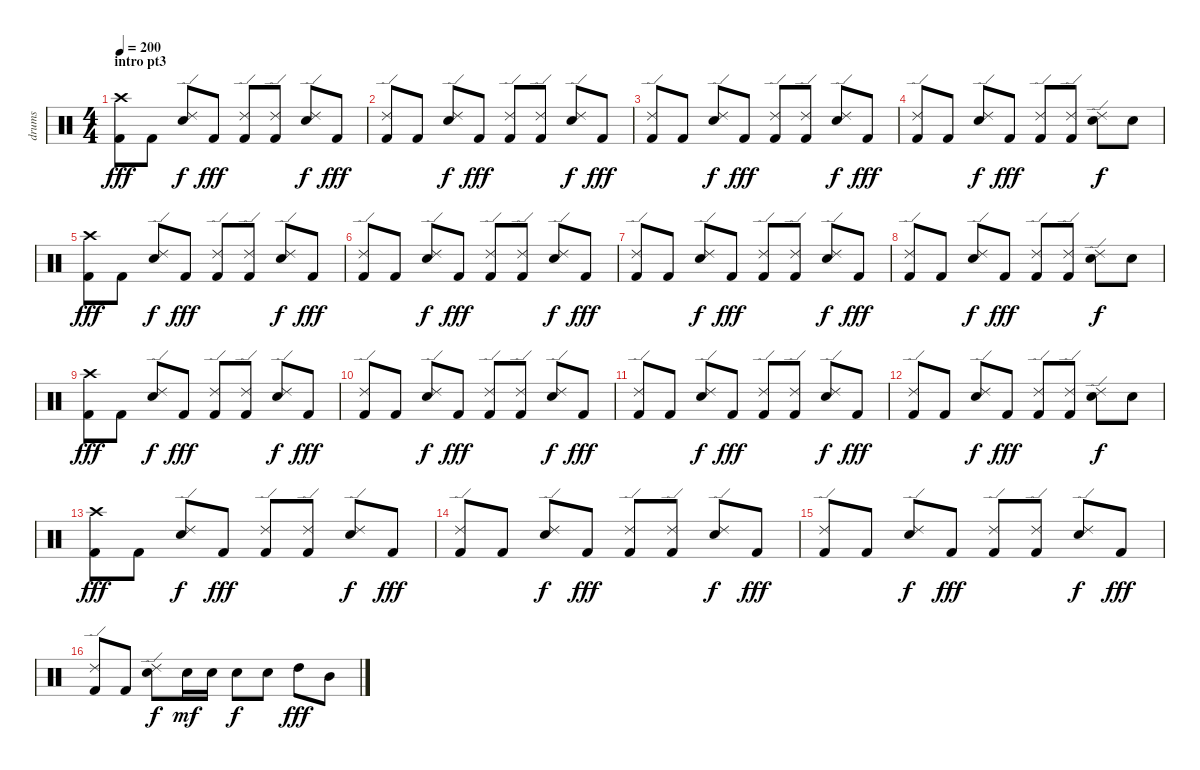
\track ("drums" "drums") {instrument percussion}
\staff {score}
\articulation defaults
\ts (4 4)
\section ("" "intro pt3")
\tempo 200
\clef neutral
\ks c
("Crash high (hit)" "Kick (hit) 2").8{dy fff} "Kick (hit) 2".8 ("Ride (edge) 2" "Snare (hit) 2").8{dy f} "Kick (hit) 2".8{dy fff} ("Ride (edge) 2" "Kick (hit) 2").8 ("Ride (edge) 2" "Kick (hit) 2").8 ("Ride (edge) 2" "Snare (hit) 2").8{dy f} "Kick (hit) 2".8{dy fff} |
("Ride (edge) 2" "Kick (hit) 2").8 "Kick (hit) 2".8 ("Ride (edge) 2" "Snare (hit) 2").8{dy f} "Kick (hit) 2".8{dy fff} ("Ride (edge) 2" "Kick (hit) 2").8 ("Ride (edge) 2" "Kick (hit) 2").8 ("Ride (edge) 2" "Snare (hit) 2").8{dy f} "Kick (hit) 2".8{dy fff} |
("Ride (edge) 2" "Kick (hit) 2").8 "Kick (hit) 2".8 ("Ride (edge) 2" "Snare (hit) 2").8{dy f} "Kick (hit) 2".8{dy fff} ("Ride (edge) 2" "Kick (hit) 2").8 ("Ride (edge) 2" "Kick (hit) 2").8 ("Ride (edge) 2" "Snare (hit) 2").8{dy f} "Kick (hit) 2".8{dy fff} |
("Ride (edge) 2" "Kick (hit) 2").8 "Kick (hit) 2".8 ("Ride (edge) 2" "Snare (hit) 2").8{dy f} "Kick (hit) 2".8{dy fff} ("Ride (edge) 2" "Kick (hit) 2").8 ("Ride (edge) 2" "Kick (hit) 2").8 ("Ride (edge) 2" "Snare (hit) 2").8{dy f} "Snare (hit) 2".8 |
("Crash high (hit)" "Kick (hit) 2").8{dy fff} "Kick (hit) 2".8 ("Ride (edge) 2" "Snare (hit) 2").8{dy f} "Kick (hit) 2".8{dy fff} ("Ride (edge) 2" "Kick (hit) 2").8 ("Ride (edge) 2" "Kick (hit) 2").8 ("Ride (edge) 2" "Snare (hit) 2").8{dy f} "Kick (hit) 2".8{dy fff} |
("Ride (edge) 2" "Kick (hit) 2").8 "Kick (hit) 2".8 ("Ride (edge) 2" "Snare (hit) 2").8{dy f} "Kick (hit) 2".8{dy fff} ("Ride (edge) 2" "Kick (hit) 2").8 ("Ride (edge) 2" "Kick (hit) 2").8 ("Ride (edge) 2" "Snare (hit) 2").8{dy f} "Kick (hit) 2".8{dy fff} |
("Ride (edge) 2" "Kick (hit) 2").8 "Kick (hit) 2".8 ("Ride (edge) 2" "Snare (hit) 2").8{dy f} "Kick (hit) 2".8{dy fff} ("Ride (edge) 2" "Kick (hit) 2").8 ("Ride (edge) 2" "Kick (hit) 2").8 ("Ride (edge) 2" "Snare (hit) 2").8{dy f} "Kick (hit) 2".8{dy fff} |
("Ride (edge) 2" "Kick (hit) 2").8 "Kick (hit) 2".8 ("Ride (edge) 2" "Snare (hit) 2").8{dy f} "Kick (hit) 2".8{dy fff} ("Ride (edge) 2" "Kick (hit) 2").8 ("Ride (edge) 2" "Kick (hit) 2").8 ("Ride (edge) 2" "Snare (hit) 2").8{dy f} "Snare (hit) 2".8 |
("Crash high (hit)" "Kick (hit) 2").8{dy fff} "Kick (hit) 2".8 ("Ride (edge) 2" "Snare (hit) 2").8{dy f} "Kick (hit) 2".8{dy fff} ("Ride (edge) 2" "Kick (hit) 2").8 ("Ride (edge) 2" "Kick (hit) 2").8 ("Ride (edge) 2" "Snare (hit) 2").8{dy f} "Kick (hit) 2".8{dy fff} |
("Ride (edge) 2" "Kick (hit) 2").8 "Kick (hit) 2".8 ("Ride (edge) 2" "Snare (hit) 2").8{dy f} "Kick (hit) 2".8{dy fff} ("Ride (edge) 2" "Kick (hit) 2").8 ("Ride (edge) 2" "Kick (hit) 2").8 ("Ride (edge) 2" "Snare (hit) 2").8{dy f} "Kick (hit) 2".8{dy fff} |
("Ride (edge) 2" "Kick (hit) 2").8 "Kick (hit) 2".8 ("Ride (edge) 2" "Snare (hit) 2").8{dy f} "Kick (hit) 2".8{dy fff} ("Ride (edge) 2" "Kick (hit) 2").8 ("Ride (edge) 2" "Kick (hit) 2").8 ("Ride (edge) 2" "Snare (hit) 2").8{dy f} "Kick (hit) 2".8{dy fff} |
("Ride (edge) 2" "Kick (hit) 2").8 "Kick (hit) 2".8 ("Ride (edge) 2" "Snare (hit) 2").8{dy f} "Kick (hit) 2".8{dy fff} ("Ride (edge) 2" "Kick (hit) 2").8 ("Ride (edge) 2" "Kick (hit) 2").8 ("Ride (edge) 2" "Snare (hit) 2").8{dy f} "Snare (hit) 2".8 |
("Crash high (hit)" "Kick (hit) 2").8{dy fff} "Kick (hit) 2".8 ("Ride (edge) 2" "Snare (hit) 2").8{dy f} "Kick (hit) 2".8{dy fff} ("Ride (edge) 2" "Kick (hit) 2").8 ("Ride (edge) 2" "Kick (hit) 2").8 ("Ride (edge) 2" "Snare (hit) 2").8{dy f} "Kick (hit) 2".8{dy fff} |
("Ride (edge) 2" "Kick (hit) 2").8 "Kick (hit) 2".8 ("Ride (edge) 2" "Snare (hit) 2").8{dy f} "Kick (hit) 2".8{dy fff} ("Ride (edge) 2" "Kick (hit) 2").8 ("Ride (edge) 2" "Kick (hit) 2").8 ("Ride (edge) 2" "Snare (hit) 2").8{dy f} "Kick (hit) 2".8{dy fff} |
("Ride (edge) 2" "Kick (hit) 2").8 "Kick (hit) 2".8 ("Ride (edge) 2" "Snare (hit) 2").8{dy f} "Kick (hit) 2".8{dy fff} ("Ride (edge) 2" "Kick (hit) 2").8 ("Ride (edge) 2" "Kick (hit) 2").8 ("Ride (edge) 2" "Snare (hit) 2").8{dy f} "Kick (hit) 2".8{dy fff} |
("Ride (edge) 2" "Kick (hit) 2").8 "Kick (hit) 2".8 ("Ride (edge) 2" "Snare (hit) 2").8{dy f} "Snare (hit) 2".16{dy mf} "Snare (hit) 2".16 "Snare (hit) 2".8{dy f} "Snare (hit) 2".8 "High Tom (hit)".8{dy fff} "Mid Tom (hit)".8
